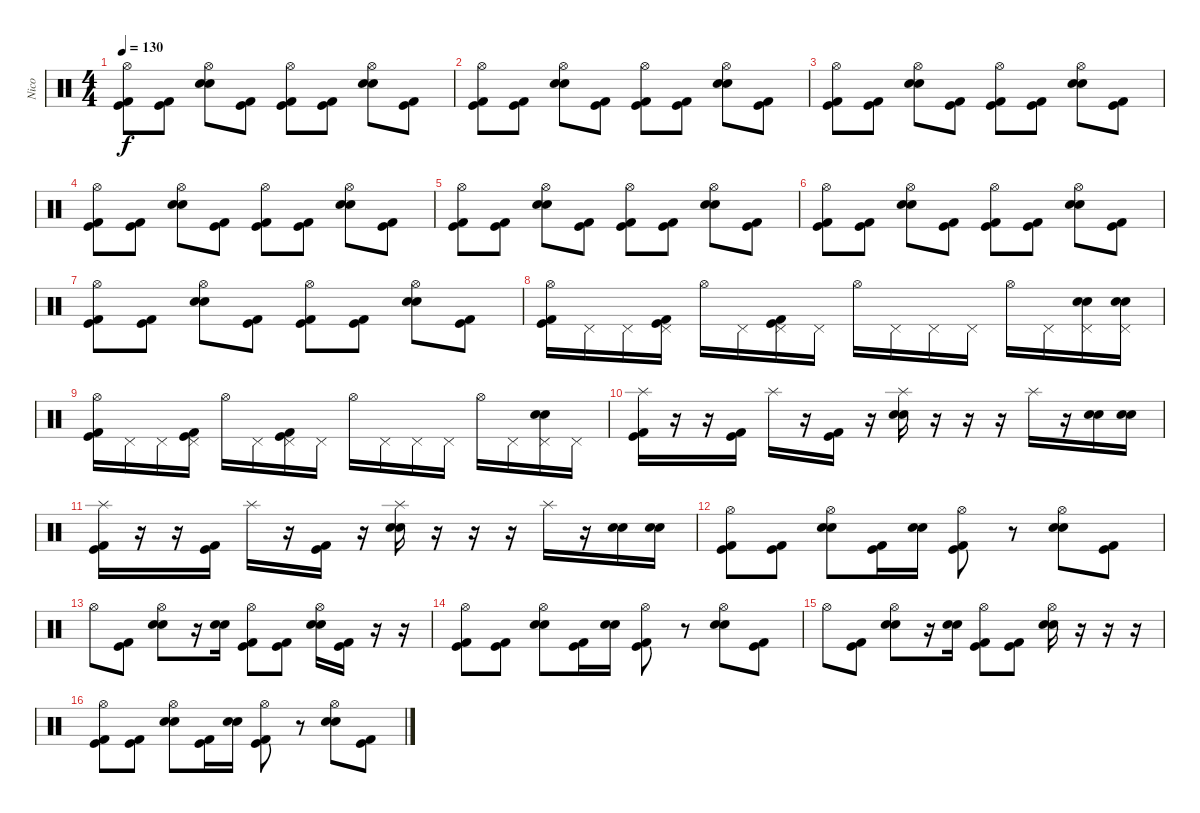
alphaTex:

\track ("Nico" "Nico") {instrument percussion}
\staff {score}
\articulation defaults
\ts (4 4)
\tempo 130
\clef neutral
\ks c
("Hi-Hat (open)" "Kick (hit) 2" "Kick (hit)").8{dy f} ("Kick (hit) 2" "Kick (hit)").8 ("Hi-Hat (open)" "Electric Snare (hit)" "Electric Snare (hit)").8 ("Kick (hit)" "Kick (hit) 2").8 ("Hi-Hat (open)" "Kick (hit) 2" "Kick (hit)").8 ("Kick (hit) 2" "Kick (hit)").8 ("Hi-Hat (open)" "Electric Snare (hit)" "Electric Snare (hit)").8 ("Kick (hit)" "Kick (hit) 2").8 |
("Hi-Hat (open)" "Kick (hit) 2" "Kick (hit)").8 ("Kick (hit) 2" "Kick (hit)").8 ("Hi-Hat (open)" "Electric Snare (hit)" "Electric Snare (hit)").8 ("Kick (hit)" "Kick (hit) 2").8 ("Hi-Hat (open)" "Kick (hit) 2" "Kick (hit)").8 ("Kick (hit) 2" "Kick (hit)").8 ("Hi-Hat (open)" "Electric Snare (hit)" "Electric Snare (hit)").8 ("Kick (hit)" "Kick (hit) 2").8 |
("Hi-Hat (open)" "Kick (hit) 2" "Kick (hit)").8 ("Kick (hit) 2" "Kick (hit)").8 ("Hi-Hat (open)" "Electric Snare (hit)" "Electric Snare (hit)").8 ("Kick (hit)" "Kick (hit) 2").8 ("Hi-Hat (open)" "Kick (hit) 2" "Kick (hit)").8 ("Kick (hit) 2" "Kick (hit)").8 ("Hi-Hat (open)" "Electric Snare (hit)" "Electric Snare (hit)").8 ("Kick (hit)" "Kick (hit) 2").8 |
("Hi-Hat (open)" "Kick (hit) 2" "Kick (hit)").8 ("Kick (hit) 2" "Kick (hit)").8 ("Hi-Hat (open)" "Electric Snare (hit)" "Electric Snare (hit)").8 ("Kick (hit)" "Kick (hit) 2").8 ("Hi-Hat (open)" "Kick (hit) 2" "Kick (hit)").8 ("Kick (hit) 2" "Kick (hit)").8 ("Hi-Hat (open)" "Electric Snare (hit)" "Electric Snare (hit)").8 ("Kick (hit)" "Kick (hit) 2").8 |
("Hi-Hat (open)" "Kick (hit) 2" "Kick (hit)").8 ("Kick (hit) 2" "Kick (hit)").8 ("Hi-Hat (open)" "Electric Snare (hit)" "Electric Snare (hit)").8 ("Kick (hit)" "Kick (hit) 2").8 ("Hi-Hat (open)" "Kick (hit) 2" "Kick (hit)").8 ("Kick (hit) 2" "Kick (hit)").8 ("Hi-Hat (open)" "Electric Snare (hit)" "Electric Snare (hit)").8 ("Kick (hit)" "Kick (hit) 2").8 |
("Hi-Hat (open)" "Kick (hit) 2" "Kick (hit)").8 ("Kick (hit) 2" "Kick (hit)").8 ("Hi-Hat (open)" "Electric Snare (hit)" "Electric Snare (hit)").8 ("Kick (hit)" "Kick (hit) 2").8 ("Hi-Hat (open)" "Kick (hit) 2" "Kick (hit)").8 ("Kick (hit) 2" "Kick (hit)").8 ("Hi-Hat (open)" "Electric Snare (hit)" "Electric Snare (hit)").8 ("Kick (hit)" "Kick (hit) 2").8 |
("Hi-Hat (open)" "Kick (hit) 2" "Kick (hit)").8 ("Kick (hit) 2" "Kick (hit)").8 ("Hi-Hat (open)" "Electric Snare (hit)" "Electric Snare (hit)").8 ("Kick (hit)" "Kick (hit) 2").8 ("Hi-Hat (open)" "Kick (hit) 2" "Kick (hit)").8 ("Kick (hit) 2" "Kick (hit)").8 ("Hi-Hat (open)" "Electric Snare (hit)" "Electric Snare (hit)").8 ("Kick (hit)" "Kick (hit) 2").8 |
("Hi-Hat (open)" "Kick (hit) 2" "Kick (hit)").16 "Pedal Hi-Hat (hit)".16 "Pedal Hi-Hat (hit)".16 ("Pedal Hi-Hat (hit)" "Kick (hit) 2" "Kick (hit)").16 "Hi-Hat (open)".16 "Pedal Hi-Hat (hit)".16 ("Pedal Hi-Hat (hit)" "Kick (hit) 2" "Kick (hit)").16 "Pedal Hi-Hat (hit)".16 "Hi-Hat (open)".16 "Pedal Hi-Hat (hit)".16 "Pedal Hi-Hat (hit)".16 "Pedal Hi-Hat (hit)".16 "Hi-Hat (open)".16 "Pedal Hi-Hat (hit)".16 ("Pedal Hi-Hat (hit)" "Electric Snare (hit)" "Electric Snare (hit)").16 ("Pedal Hi-Hat (hit)" "Electric Snare (hit)" "Electric Snare (hit)").16 |
("Hi-Hat (open)" "Kick (hit) 2" "Kick (hit)").16 "Pedal Hi-Hat (hit)".16 "Pedal Hi-Hat (hit)".16 ("Pedal Hi-Hat (hit)" "Kick (hit) 2" "Kick (hit)").16 "Hi-Hat (open)".16 "Pedal Hi-Hat (hit)".16 ("Pedal Hi-Hat (hit)" "Kick (hit) 2" "Kick (hit)").16 "Pedal Hi-Hat (hit)".16 "Hi-Hat (open)".16 "Pedal Hi-Hat (hit)".16 "Pedal Hi-Hat (hit)".16 "Pedal Hi-Hat (hit)".16 "Hi-Hat (open)".16 "Pedal Hi-Hat (hit)".16 ("Pedal Hi-Hat (hit)" "Electric Snare (hit)" "Electric Snare (hit)").16 "Pedal Hi-Hat (hit)".16 |
("Splash (hit)" "Kick (hit) 2" "Kick (hit)").16 r.16 r.16 ("Kick (hit) 2" "Kick (hit)").16 "Splash (hit)".16 r.16 ("Kick (hit) 2" "Kick (hit)").16 r.16 ("Splash (hit)" "Electric Snare (hit)" "Electric Snare (hit)").16 r.16 r.16 r.16 "Splash (hit)".16 r.16 ("Electric Snare (hit)" "Electric Snare (hit)").16 ("Electric Snare (hit)" "Electric Snare (hit)").16 |
("Splash (hit)" "Kick (hit) 2" "Kick (hit)").16 r.16 r.16 ("Kick (hit) 2" "Kick (hit)").16 "Splash (hit)".16 r.16 ("Kick (hit) 2" "Kick (hit)").16 r.16 ("Splash (hit)" "Electric Snare (hit)" "Electric Snare (hit)").16 r.16 r.16 r.16 "Splash (hit)".16 r.16 ("Electric Snare (hit)" "Electric Snare (hit)").16 ("Electric Snare (hit)" "Electric Snare (hit)").16 |
("Hi-Hat (open)" "Kick (hit) 2" "Kick (hit)").8 ("Kick (hit) 2" "Kick (hit)").8 ("Hi-Hat (open)" "Electric Snare (hit)" "Electric Snare (hit)").8 ("Kick (hit) 2" "Kick (hit)").16 ("Electric Snare (hit)" "Electric Snare (hit)").16 ("Hi-Hat (open)" "Kick (hit) 2" "Kick (hit)").8 r.8 ("Hi-Hat (open)" "Electric Snare (hit)" "Electric Snare (hit)").8 ("Kick (hit)" "Kick (hit) 2").8 |
"Hi-Hat (open)".8 ("Kick (hit) 2" "Kick (hit)").8 ("Hi-Hat (open)" "Electric Snare (hit)" "Electric Snare (hit)").8 r.16 ("Electric Snare (hit)" "Electric Snare (hit)").16 ("Hi-Hat (open)" "Kick (hit) 2" "Kick (hit)").8 ("Kick (hit) 2" "Kick (hit)").8 ("Hi-Hat (open)" "Electric Snare (hit)" "Electric Snare (hit)").16 ("Kick (hit) 2" "Kick (hit)").16 r.16 r.16 |
("Hi-Hat (open)" "Kick (hit) 2" "Kick (hit)").8 ("Kick (hit) 2" "Kick (hit)").8 ("Hi-Hat (open)" "Electric Snare (hit)" "Electric Snare (hit)").8 ("Kick (hit) 2" "Kick (hit)").16 ("Electric Snare (hit)" "Electric Snare (hit)").16 ("Hi-Hat (open)" "Kick (hit) 2" "Kick (hit)").8 r.8 ("Hi-Hat (open)" "Electric Snare (hit)" "Electric Snare (hit)").8 ("Kick (hit)" "Kick (hit) 2").8 |
"Hi-Hat (open)".8 ("Kick (hit) 2" "Kick (hit)").8 ("Hi-Hat (open)" "Electric Snare (hit)" "Electric Snare (hit)").8 r.16 ("Electric Snare (hit)" "Electric Snare (hit)").16 ("Hi-Hat (open)" "Kick (hit) 2" "Kick (hit)").8 ("Kick (hit) 2" "Kick (hit)").8 ("Hi-Hat (open)" "Electric Snare (hit)" "Electric Snare (hit)").16 r.16 r.16 r.16 |
("Hi-Hat (open)" "Kick (hit) 2" "Kick (hit)").8 ("Kick (hit) 2" "Kick (hit)").8 ("Hi-Hat (open)" "Electric Snare (hit)" "Electric Snare (hit)").8 ("Kick (hit) 2" "Kick (hit)").16 ("Electric Snare (hit)" "Electric Snare (hit)").16 ("Hi-Hat (open)" "Kick (hit) 2" "Kick (hit)").8 r.8 ("Hi-Hat (open)" "Electric Snare (hit)" "Electric Snare (hit)").8 ("Kick (hit)" "Kick (hit) 2").8
